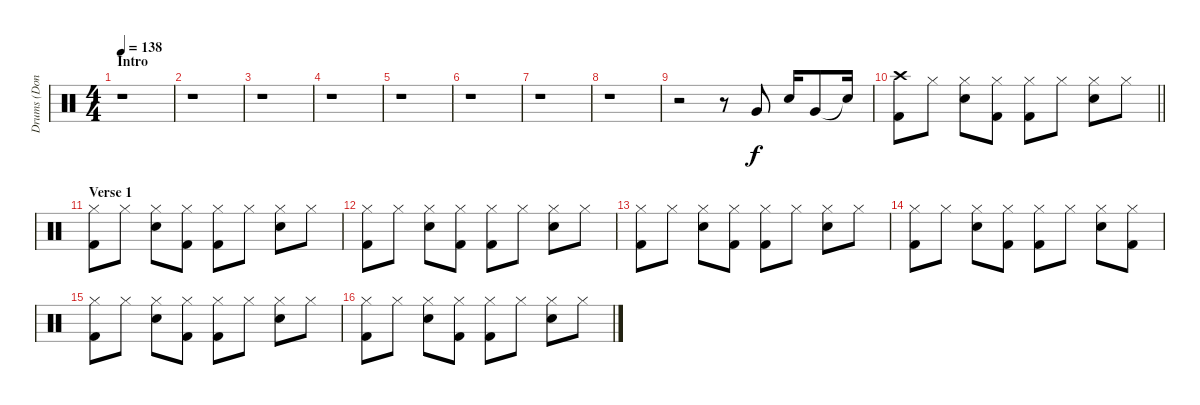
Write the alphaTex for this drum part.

\track ("Drums (Don Henley)" "Drums (Don") {instrument percussion}
\staff {score}
\articulation defaults
\ts (4 4)
\section ("" "Intro")
\tempo 138
\clef neutral
\ks c
r.1{dy f} |
r.1 |
r.1 |
r.1 |
r.1 |
r.1 |
r.1 |
r.1 |
r.2 r.8 "Very Low Tom (hit)".8 "Snare (hit) 2".16 "Very Low Tom (hit)".8 "Snare (hit)"{t}.16 |
\barLineRight lightlight
("Crash high (hit)" "Kick (hit) 2").8 "Hi-Hat (closed)".8 ("Hi-Hat (closed)" "Snare (hit) 2").8 ("Hi-Hat (closed)" "Kick (hit) 2").8 ("Hi-Hat (closed)" "Kick (hit) 2").8 "Hi-Hat (closed)".8 ("Hi-Hat (closed)" "Snare (hit) 2").8 "Hi-Hat (closed)".8 |
\section ("" "Verse 1")
("Hi-Hat (closed)" "Kick (hit) 2").8 "Hi-Hat (closed)".8 ("Hi-Hat (closed)" "Snare (hit) 2").8 ("Hi-Hat (closed)" "Kick (hit) 2").8 ("Hi-Hat (closed)" "Kick (hit) 2").8 "Hi-Hat (closed)".8 ("Hi-Hat (closed)" "Snare (hit) 2").8 "Hi-Hat (closed)".8 |
("Hi-Hat (closed)" "Kick (hit) 2").8 "Hi-Hat (closed)".8 ("Hi-Hat (closed)" "Snare (hit) 2").8 ("Hi-Hat (closed)" "Kick (hit) 2").8 ("Hi-Hat (closed)" "Kick (hit) 2").8 "Hi-Hat (closed)".8 ("Hi-Hat (closed)" "Snare (hit) 2").8 "Hi-Hat (closed)".8 |
("Hi-Hat (closed)" "Kick (hit) 2").8 "Hi-Hat (closed)".8 ("Hi-Hat (closed)" "Snare (hit) 2").8 ("Hi-Hat (closed)" "Kick (hit) 2").8 ("Hi-Hat (closed)" "Kick (hit) 2").8 "Hi-Hat (closed)".8 ("Hi-Hat (closed)" "Snare (hit) 2").8 "Hi-Hat (closed)".8 |
("Hi-Hat (closed)" "Kick (hit) 2").8 "Hi-Hat (closed)".8 ("Hi-Hat (closed)" "Snare (hit) 2").8 ("Hi-Hat (closed)" "Kick (hit) 2").8 ("Hi-Hat (closed)" "Kick (hit) 2").8 "Hi-Hat (closed)".8 ("Hi-Hat (closed)" "Snare (hit) 2").8 ("Hi-Hat (closed)" "Kick (hit) 2").8 |
("Hi-Hat (closed)" "Kick (hit) 2").8 "Hi-Hat (closed)".8 ("Hi-Hat (closed)" "Snare (hit) 2").8 ("Hi-Hat (closed)" "Kick (hit) 2").8 ("Hi-Hat (closed)" "Kick (hit) 2").8 "Hi-Hat (closed)".8 ("Hi-Hat (closed)" "Snare (hit) 2").8 "Hi-Hat (closed)".8 |
("Hi-Hat (closed)" "Kick (hit) 2").8 "Hi-Hat (closed)".8 ("Hi-Hat (closed)" "Snare (hit) 2").8 ("Hi-Hat (closed)" "Kick (hit) 2").8 ("Hi-Hat (closed)" "Kick (hit) 2").8 "Hi-Hat (closed)".8 ("Hi-Hat (closed)" "Snare (hit) 2").8 "Hi-Hat (closed)".8
